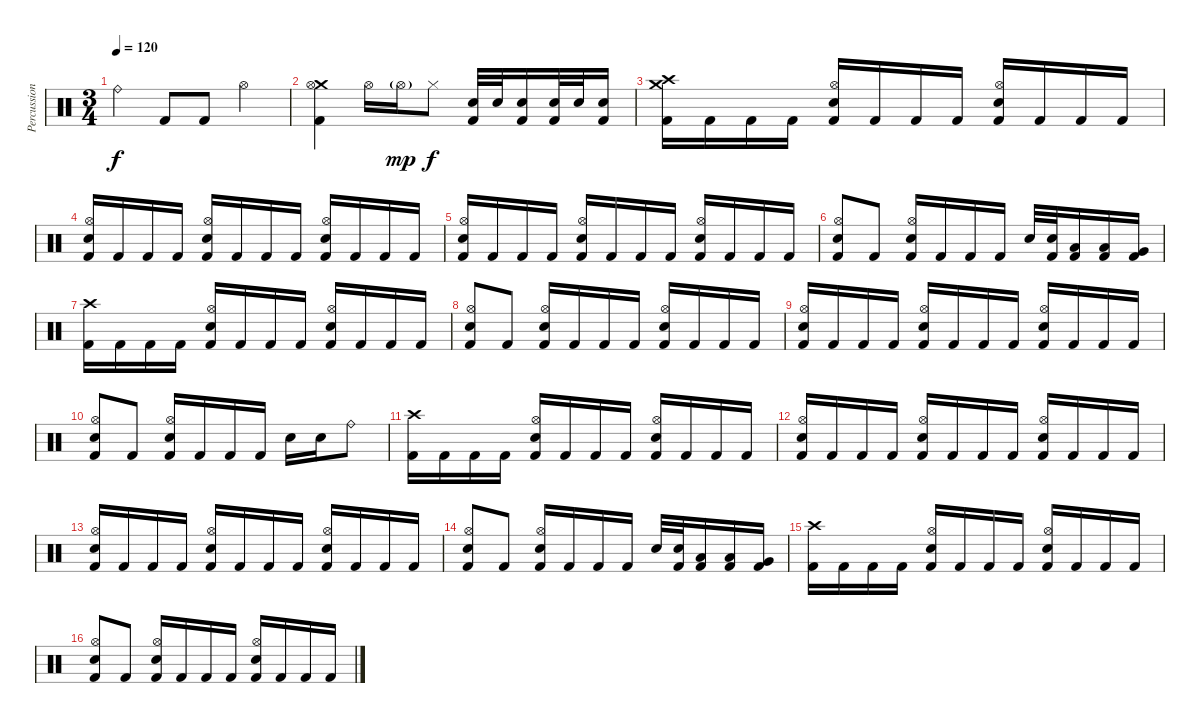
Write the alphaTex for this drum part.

\track ("Percussion" "Percussion") {instrument percussion}
\staff {score}
\articulation defaults
\ts (3 4)
\tempo 120
\clef neutral
\ks c "Ride (bell)".4{dy f} "Kick (hit) 2".8 "Kick (hit) 2".8 "Hi-Hat (open)".4
|
("Crash medium (hit)" "Hi-Hat (open)"{t} "Kick (hit) 2").4 "Hi-Hat (open)".16 "Hi-Hat (open)"{g}.16{dy mp} "Hi-Hat (closed)".8{dy f} ("Electric Snare (hit)" "Kick (hit) 2").32 "Electric Snare (hit)".32 ("Electric Snare (hit)" "Kick (hit) 2").16 ("Electric Snare (hit)" "Kick (hit) 2").32 "Electric Snare (hit)".32 ("Electric Snare (hit)" "Kick (hit) 2").16 |
("Crash high (hit)" "Crash medium (hit)" "Kick (hit) 2").16 "Kick (hit) 2".16 "Kick (hit) 2".16 "Kick (hit) 2".16 ("Hi-Hat (open)" "Electric Snare (hit)" "Kick (hit) 2").16 "Kick (hit) 2".16 "Kick (hit) 2".16 "Kick (hit) 2".16 ("Hi-Hat (open)" "Electric Snare (hit)" "Kick (hit) 2").16 "Kick (hit) 2".16 "Kick (hit) 2".16 "Kick (hit) 2".16 |
("Hi-Hat (open)" "Electric Snare (hit)" "Kick (hit) 2").16 "Kick (hit) 2".16 "Kick (hit) 2".16 "Kick (hit) 2".16 ("Hi-Hat (open)" "Electric Snare (hit)" "Kick (hit) 2").16 "Kick (hit) 2".16 "Kick (hit) 2".16 "Kick (hit) 2".16 ("Hi-Hat (open)" "Electric Snare (hit)" "Kick (hit) 2").16 "Kick (hit) 2".16 "Kick (hit) 2".16 "Kick (hit) 2".16 |
("Hi-Hat (open)" "Electric Snare (hit)" "Kick (hit) 2").16 "Kick (hit) 2".16 "Kick (hit) 2".16 "Kick (hit) 2".16 ("Hi-Hat (open)" "Electric Snare (hit)" "Kick (hit) 2").16 "Kick (hit) 2".16 "Kick (hit) 2".16 "Kick (hit) 2".16 ("Hi-Hat (open)" "Electric Snare (hit)" "Kick (hit) 2").16 "Kick (hit) 2".16 "Kick (hit) 2".16 "Kick (hit) 2".16 |
("Hi-Hat (open)" "Electric Snare (hit)" "Kick (hit) 2").8 "Kick (hit) 2".8 ("Hi-Hat (open)" "Electric Snare (hit)" "Kick (hit) 2").16 "Kick (hit) 2".16 "Kick (hit) 2".16 "Kick (hit) 2".16 "Electric Snare (hit)".32 ("Electric Snare (hit)" "Kick (hit) 2").32 ("Low Tom (hit)" "Kick (hit) 2").16 ("Low Tom (hit)" "Kick (hit) 2").16 ("Very Low Tom (hit)" "Kick (hit) 2").16 |
("Crash high (hit)" "Kick (hit) 2").16 "Kick (hit) 2".16 "Kick (hit) 2".16 "Kick (hit) 2".16 ("Hi-Hat (open)" "Electric Snare (hit)" "Kick (hit) 2").16 "Kick (hit) 2".16 "Kick (hit) 2".16 "Kick (hit) 2".16 ("Hi-Hat (open)" "Electric Snare (hit)" "Kick (hit) 2").16 "Kick (hit) 2".16 "Kick (hit) 2".16 "Kick (hit) 2".16 |
("Hi-Hat (open)" "Electric Snare (hit)" "Kick (hit) 2").8 "Kick (hit) 2".8 ("Hi-Hat (open)" "Electric Snare (hit)" "Kick (hit) 2").16 "Kick (hit) 2".16 "Kick (hit) 2".16 "Kick (hit) 2".16 ("Hi-Hat (open)" "Electric Snare (hit)" "Kick (hit) 2").16 "Kick (hit) 2".16 "Kick (hit) 2".16 "Kick (hit) 2".16 |
("Hi-Hat (open)" "Electric Snare (hit)" "Kick (hit) 2").16 "Kick (hit) 2".16 "Kick (hit) 2".16 "Kick (hit) 2".16 ("Hi-Hat (open)" "Electric Snare (hit)" "Kick (hit) 2").16 "Kick (hit) 2".16 "Kick (hit) 2".16 "Kick (hit) 2".16 ("Hi-Hat (open)" "Electric Snare (hit)" "Kick (hit) 2").16 "Kick (hit) 2".16 "Kick (hit) 2".16 "Kick (hit) 2".16 |
("Hi-Hat (open)" "Electric Snare (hit)" "Kick (hit) 2").8 "Kick (hit) 2".8 ("Hi-Hat (open)" "Electric Snare (hit)" "Kick (hit) 2").16 "Kick (hit) 2".16 "Kick (hit) 2".16 "Kick (hit) 2".16 "Electric Snare (hit)".16 "Electric Snare (hit)".16 "Ride (bell)".8 |
("Crash high (hit)" "Kick (hit) 2").16 "Kick (hit) 2".16 "Kick (hit) 2".16 "Kick (hit) 2".16 ("Hi-Hat (open)" "Electric Snare (hit)" "Kick (hit) 2").16 "Kick (hit) 2".16 "Kick (hit) 2".16 "Kick (hit) 2".16 ("Hi-Hat (open)" "Electric Snare (hit)" "Kick (hit) 2").16 "Kick (hit) 2".16 "Kick (hit) 2".16 "Kick (hit) 2".16 |
("Hi-Hat (open)" "Electric Snare (hit)" "Kick (hit) 2").16 "Kick (hit) 2".16 "Kick (hit) 2".16 "Kick (hit) 2".16 ("Hi-Hat (open)" "Electric Snare (hit)" "Kick (hit) 2").16 "Kick (hit) 2".16 "Kick (hit) 2".16 "Kick (hit) 2".16 ("Hi-Hat (open)" "Electric Snare (hit)" "Kick (hit) 2").16 "Kick (hit) 2".16 "Kick (hit) 2".16 "Kick (hit) 2".16 |
("Hi-Hat (open)" "Electric Snare (hit)" "Kick (hit) 2").16 "Kick (hit) 2".16 "Kick (hit) 2".16 "Kick (hit) 2".16 ("Hi-Hat (open)" "Electric Snare (hit)" "Kick (hit) 2").16 "Kick (hit) 2".16 "Kick (hit) 2".16 "Kick (hit) 2".16 ("Hi-Hat (open)" "Electric Snare (hit)" "Kick (hit) 2").16 "Kick (hit) 2".16 "Kick (hit) 2".16 "Kick (hit) 2".16 |
("Hi-Hat (open)" "Electric Snare (hit)" "Kick (hit) 2").8 "Kick (hit) 2".8 ("Hi-Hat (open)" "Electric Snare (hit)" "Kick (hit) 2").16 "Kick (hit) 2".16 "Kick (hit) 2".16 "Kick (hit) 2".16 "Electric Snare (hit)".32 ("Electric Snare (hit)" "Kick (hit) 2").32 ("Low Tom (hit)" "Kick (hit) 2").16 ("Low Tom (hit)" "Kick (hit) 2").16 ("Very Low Tom (hit)" "Kick (hit) 2").16 |
("Crash high (hit)" "Kick (hit) 2").16 "Kick (hit) 2".16 "Kick (hit) 2".16 "Kick (hit) 2".16 ("Hi-Hat (open)" "Electric Snare (hit)" "Kick (hit) 2").16 "Kick (hit) 2".16 "Kick (hit) 2".16 "Kick (hit) 2".16 ("Hi-Hat (open)" "Electric Snare (hit)" "Kick (hit) 2").16 "Kick (hit) 2".16 "Kick (hit) 2".16 "Kick (hit) 2".16 |
("Hi-Hat (open)" "Electric Snare (hit)" "Kick (hit) 2").8 "Kick (hit) 2".8 ("Hi-Hat (open)" "Electric Snare (hit)" "Kick (hit) 2").16 "Kick (hit) 2".16 "Kick (hit) 2".16 "Kick (hit) 2".16 ("Hi-Hat (open)" "Electric Snare (hit)" "Kick (hit) 2").16 "Kick (hit) 2".16 "Kick (hit) 2".16 "Kick (hit) 2".16
